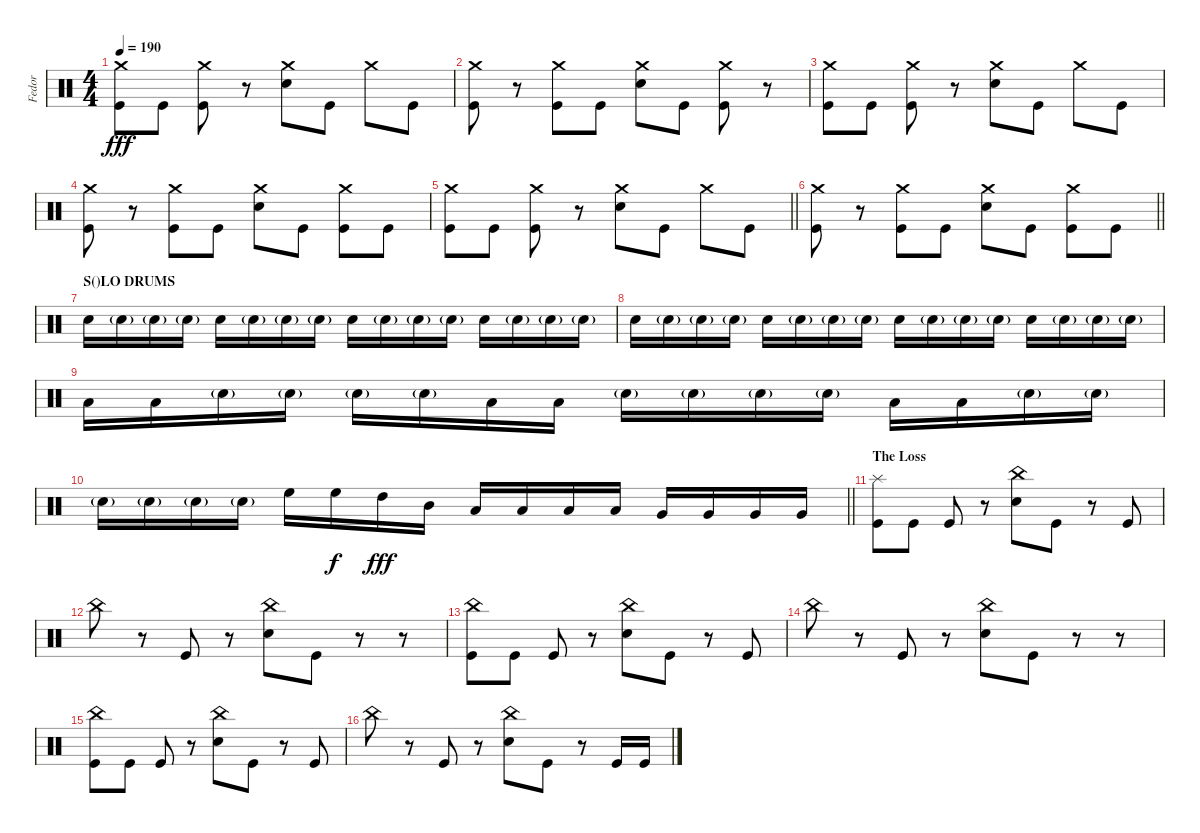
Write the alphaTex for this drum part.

\track ("Fedor" "Fedor") {instrument percussion}
\staff {score}
\articulation defaults
\ts (4 4)
\tempo 190
\clef neutral
\ks c
("Crash medium (hit)" "Kick (hit)").8{dy fff} "Kick (hit)".8 ("Crash medium (hit)" "Kick (hit)").8 r.8 ("Crash medium (hit)" "Electric Snare (hit)").8 "Kick (hit)".8 "Crash medium (hit)".8 "Kick (hit)".8 |
("Crash medium (hit)" "Kick (hit)").8 r.8 ("Crash medium (hit)" "Kick (hit)").8 "Kick (hit)".8 ("Crash medium (hit)" "Electric Snare (hit)").8 "Kick (hit)".8 ("Crash medium (hit)" "Kick (hit)").8 r.8 |
("Crash medium (hit)" "Kick (hit)").8 "Kick (hit)".8 ("Crash medium (hit)" "Kick (hit)").8 r.8 ("Crash medium (hit)" "Electric Snare (hit)").8 "Kick (hit)".8 "Crash medium (hit)".8 "Kick (hit)".8 |
("Crash medium (hit)" "Kick (hit)").8 r.8 ("Crash medium (hit)" "Kick (hit)").8 "Kick (hit)".8 ("Crash medium (hit)" "Electric Snare (hit)").8 "Kick (hit)".8 ("Crash medium (hit)" "Kick (hit)").8 "Kick (hit)".8 |
\barLineRight lightlight
("Crash medium (hit)" "Kick (hit)").8 "Kick (hit)".8 ("Crash medium (hit)" "Kick (hit)").8 r.8 ("Crash medium (hit)" "Electric Snare (hit)").8 "Kick (hit)".8 "Crash medium (hit)".8 "Kick (hit)".8 |
\section ("" "")
\barLineRight lightlight
("Crash medium (hit)" "Kick (hit)").8 r.8 ("Crash medium (hit)" "Kick (hit)").8 "Kick (hit)".8 ("Crash medium (hit)" "Electric Snare (hit)").8 "Kick (hit)".8 ("Crash medium (hit)" "Kick (hit)").8 "Kick (hit)".8 |
\section ("" "S()LO DRUMS")
"Electric Snare (hit)".16 "Electric Snare (hit)"{g}.16 "Electric Snare (hit)"{g}.16 "Electric Snare (hit)"{g}.16 "Electric Snare (hit)".16 "Electric Snare (hit)"{g}.16 "Electric Snare (hit)"{g}.16 "Electric Snare (hit)"{g}.16 "Electric Snare (hit)".16 "Electric Snare (hit)"{g}.16 "Electric Snare (hit)"{g}.16 "Electric Snare (hit)"{g}.16 "Electric Snare (hit)".16 "Electric Snare (hit)"{g}.16 "Electric Snare (hit)"{g}.16 "Electric Snare (hit)"{g}.16 |
"Electric Snare (hit)".16 "Electric Snare (hit)"{g}.16 "Electric Snare (hit)"{g}.16 "Electric Snare (hit)"{g}.16 "Electric Snare (hit)".16 "Electric Snare (hit)"{g}.16 "Electric Snare (hit)"{g}.16 "Electric Snare (hit)"{g}.16 "Electric Snare (hit)".16 "Electric Snare (hit)"{g}.16 "Electric Snare (hit)"{g}.16 "Electric Snare (hit)"{g}.16 "Electric Snare (hit)".16 "Electric Snare (hit)"{g}.16 "Electric Snare (hit)"{g}.16 "Electric Snare (hit)"{g}.16 |
"Low Tom (hit)".16 "Low Tom (hit)".16 "Electric Snare (hit)"{g}.16 "Electric Snare (hit)"{g}.16 "Electric Snare (hit)"{g}.16 "Electric Snare (hit)"{g}.16 "Low Tom (hit)".16 "Low Tom (hit)".16 "Electric Snare (hit)"{g}.16 "Electric Snare (hit)"{g}.16 "Electric Snare (hit)"{g}.16 "Electric Snare (hit)"{g}.16 "Low Tom (hit)".16 "Low Tom (hit)".16 "Electric Snare (hit)"{g}.16 "Electric Snare (hit)"{g}.16 |
\barLineRight lightlight "Electric Snare (hit)"{g}.16 "Electric Snare (hit)"{g}.16 "Electric Snare (hit)"{g}.16 "Electric Snare (hit)"{g}.16 "High Floor Tom (hit)".16 "High Floor Tom (hit)".16{dy f} "High Tom (hit)".16{dy fff} "Mid Tom (hit)".16 "Low Tom (hit)".16 "Low Tom (hit)".16 "Low Tom (hit)".16 "Low Tom (hit)".16 "Very Low Tom (hit)".16 "Very Low Tom (hit)".16 "Very Low Tom (hit)".16 "Very Low Tom (hit)".16
|
\section ("" "The Loss")
("Splash (hit)" "Kick (hit)").8 "Kick (hit)".8 "Kick (hit)".8 r.8 ("China (hit)" "Electric Snare (hit)").8 "Kick (hit)".8 r.8 "Kick (hit)".8 |
"China (hit)".8 r.8 "Kick (hit)".8 r.8 ("China (hit)" "Electric Snare (hit)").8 "Kick (hit)".8 r.8 r.8 |
("China (hit)" "Kick (hit)").8 "Kick (hit)".8 "Kick (hit)".8 r.8 ("China (hit)" "Electric Snare (hit)").8 "Kick (hit)".8 r.8 "Kick (hit)".8 |
"China (hit)".8 r.8 "Kick (hit)".8 r.8 ("China (hit)" "Electric Snare (hit)").8 "Kick (hit)".8 r.8 r.8 |
("China (hit)" "Kick (hit)").8 "Kick (hit)".8 "Kick (hit)".8 r.8 ("China (hit)" "Electric Snare (hit)").8 "Kick (hit)".8 r.8 "Kick (hit)".8 |
"China (hit)".8 r.8 "Kick (hit)".8 r.8 ("China (hit)" "Electric Snare (hit)").8 "Kick (hit)".8 r.8 "Kick (hit)".16 "Kick (hit)".16
